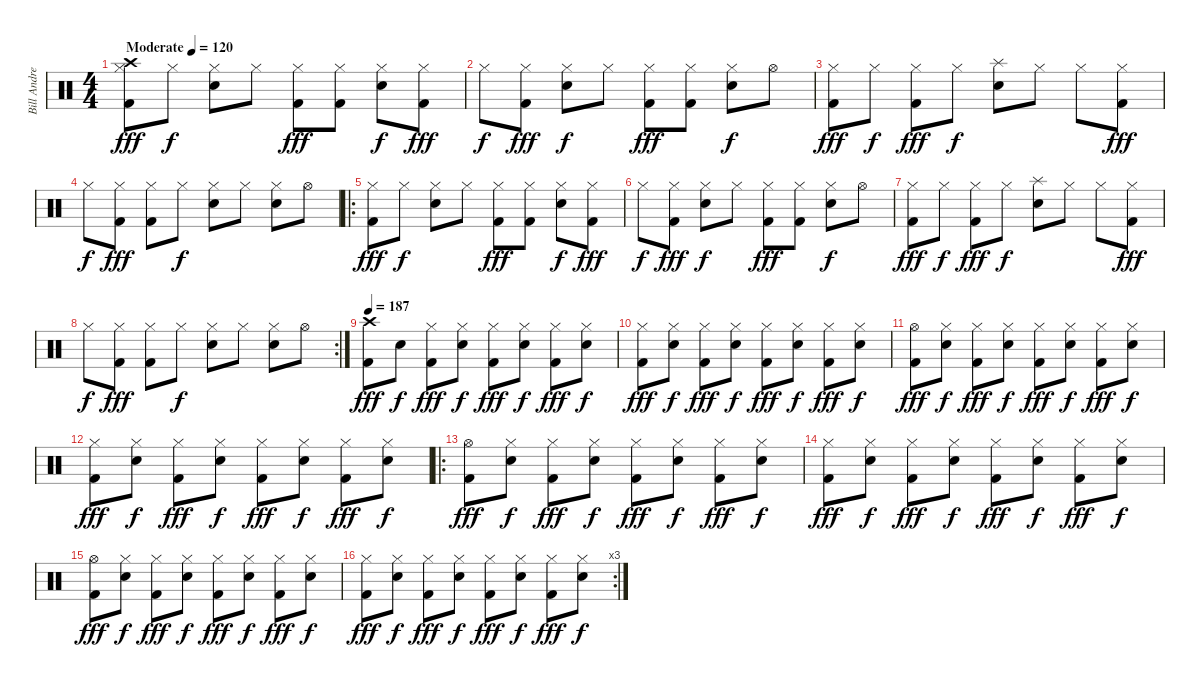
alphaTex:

\track ("Bill Andrews" "Bill Andre") {instrument percussion}
\staff {score}
\articulation defaults
\ts (4 4)
\tempo (120 "Moderate")
\clef neutral
\ks c
("Crash high (hit)" "Hi-Hat (closed)" "Kick (hit) 2").8{dy fff} "Hi-Hat (closed)".8{dy f} ("Hi-Hat (closed)" "Electric Snare (hit)").8 "Hi-Hat (closed)".8 ("Hi-Hat (closed)" "Kick (hit) 2").8{dy fff} ("Hi-Hat (closed)" "Kick (hit) 2").8 ("Hi-Hat (closed)" "Electric Snare (hit)").8{dy f} ("Hi-Hat (closed)" "Kick (hit) 2").8{dy fff} |
"Hi-Hat (closed)".8{dy f} ("Hi-Hat (closed)" "Kick (hit) 2").8{dy fff} ("Hi-Hat (closed)" "Electric Snare (hit)").8{dy f} "Hi-Hat (closed)".8 ("Hi-Hat (closed)" "Kick (hit) 2").8{dy fff} ("Hi-Hat (closed)" "Kick (hit) 2").8 ("Hi-Hat (closed)" "Electric Snare (hit)").8{dy f} "Hi-Hat (open)".8 |
("Hi-Hat (closed)" "Kick (hit) 2").8{dy fff} "Hi-Hat (closed)".8{dy f} ("Hi-Hat (closed)" "Kick (hit) 2").8{dy fff} "Hi-Hat (closed)".8{dy f} ("Splash (hit)" "Electric Snare (hit)").8 "Hi-Hat (closed)".8 "Hi-Hat (closed)".8 ("Hi-Hat (closed)" "Kick (hit) 2").8{dy fff} |
"Hi-Hat (closed)".8{dy f} ("Hi-Hat (closed)" "Kick (hit) 2").8{dy fff} ("Hi-Hat (closed)" "Kick (hit) 2").8 "Hi-Hat (closed)".8{dy f} ("Hi-Hat (closed)" "Electric Snare (hit)").8 "Hi-Hat (closed)".8 ("Hi-Hat (closed)" "Electric Snare (hit)").8 "Hi-Hat (open)".8 |
\ro
("Hi-Hat (closed)" "Kick (hit) 2").8{dy fff} "Hi-Hat (closed)".8{dy f} ("Hi-Hat (closed)" "Electric Snare (hit)").8 "Hi-Hat (closed)".8 ("Hi-Hat (closed)" "Kick (hit) 2").8{dy fff} ("Hi-Hat (closed)" "Kick (hit) 2").8 ("Hi-Hat (closed)" "Electric Snare (hit)").8{dy f} ("Hi-Hat (closed)" "Kick (hit) 2").8{dy fff} |
"Hi-Hat (closed)".8{dy f} ("Hi-Hat (closed)" "Kick (hit) 2").8{dy fff} ("Hi-Hat (closed)" "Electric Snare (hit)").8{dy f} "Hi-Hat (closed)".8 ("Hi-Hat (closed)" "Kick (hit) 2").8{dy fff} ("Hi-Hat (closed)" "Kick (hit) 2").8 ("Hi-Hat (closed)" "Electric Snare (hit)").8{dy f} "Hi-Hat (open)".8 |
("Hi-Hat (closed)" "Kick (hit) 2").8{dy fff} "Hi-Hat (closed)".8{dy f} ("Hi-Hat (closed)" "Kick (hit) 2").8{dy fff} "Hi-Hat (closed)".8{dy f} ("Splash (hit)" "Electric Snare (hit)").8 "Hi-Hat (closed)".8 "Hi-Hat (closed)".8 ("Hi-Hat (closed)" "Kick (hit) 2").8{dy fff} |
\rc 2 "Hi-Hat (closed)".8{dy f}
("Hi-Hat (closed)" "Kick (hit) 2").8{dy fff} ("Hi-Hat (closed)" "Kick (hit) 2").8 "Hi-Hat (closed)".8{dy f} ("Hi-Hat (closed)" "Electric Snare (hit)").8 "Hi-Hat (closed)".8 ("Hi-Hat (closed)" "Electric Snare (hit)").8 "Hi-Hat (open)".8 |
\tempo 187
("Crash high (hit)" "Kick (hit) 2").8{dy fff} "Electric Snare (hit)".8{dy f} ("Hi-Hat (closed)" "Kick (hit) 2").8{dy fff} ("Hi-Hat (closed)" "Electric Snare (hit)").8{dy f} ("Hi-Hat (closed)" "Kick (hit) 2").8{dy fff} ("Hi-Hat (closed)" "Electric Snare (hit)").8{dy f} ("Hi-Hat (closed)" "Kick (hit) 2").8{dy fff} ("Hi-Hat (closed)" "Electric Snare (hit)").8{dy f} |
("Hi-Hat (closed)" "Kick (hit) 2").8{dy fff} ("Hi-Hat (closed)" "Electric Snare (hit)").8{dy f} ("Hi-Hat (closed)" "Kick (hit) 2").8{dy fff} ("Hi-Hat (closed)" "Electric Snare (hit)").8{dy f} ("Hi-Hat (closed)" "Kick (hit) 2").8{dy fff} ("Hi-Hat (closed)" "Electric Snare (hit)").8{dy f} ("Hi-Hat (closed)" "Kick (hit) 2").8{dy fff} ("Hi-Hat (closed)" "Electric Snare (hit)").8{dy f} |
("Hi-Hat (open)" "Kick (hit) 2").8{dy fff} ("Hi-Hat (closed)" "Electric Snare (hit)").8{dy f} ("Hi-Hat (closed)" "Kick (hit) 2").8{dy fff} ("Hi-Hat (closed)" "Electric Snare (hit)").8{dy f} ("Hi-Hat (closed)" "Kick (hit) 2").8{dy fff} ("Hi-Hat (closed)" "Electric Snare (hit)").8{dy f} ("Hi-Hat (closed)" "Kick (hit) 2").8{dy fff} ("Hi-Hat (closed)" "Electric Snare (hit)").8{dy f} |
("Hi-Hat (closed)" "Kick (hit) 2").8{dy fff} ("Hi-Hat (closed)" "Electric Snare (hit)").8{dy f} ("Hi-Hat (closed)" "Kick (hit) 2").8{dy fff} ("Hi-Hat (closed)" "Electric Snare (hit)").8{dy f} ("Hi-Hat (closed)" "Kick (hit) 2").8{dy fff} ("Hi-Hat (closed)" "Electric Snare (hit)").8{dy f} ("Hi-Hat (closed)" "Kick (hit) 2").8{dy fff} ("Hi-Hat (closed)" "Electric Snare (hit)").8{dy f} |
\ro
("Hi-Hat (open)" "Kick (hit) 2").8{dy fff} ("Hi-Hat (closed)" "Electric Snare (hit)").8{dy f} ("Hi-Hat (closed)" "Kick (hit) 2").8{dy fff} ("Hi-Hat (closed)" "Electric Snare (hit)").8{dy f} ("Hi-Hat (closed)" "Kick (hit) 2").8{dy fff} ("Hi-Hat (closed)" "Electric Snare (hit)").8{dy f} ("Hi-Hat (closed)" "Kick (hit) 2").8{dy fff} ("Hi-Hat (closed)" "Electric Snare (hit)").8{dy f} |
("Hi-Hat (closed)" "Kick (hit) 2").8{dy fff} ("Hi-Hat (closed)" "Electric Snare (hit)").8{dy f} ("Hi-Hat (closed)" "Kick (hit) 2").8{dy fff} ("Hi-Hat (closed)" "Electric Snare (hit)").8{dy f} ("Hi-Hat (closed)" "Kick (hit) 2").8{dy fff} ("Hi-Hat (closed)" "Electric Snare (hit)").8{dy f} ("Hi-Hat (closed)" "Kick (hit) 2").8{dy fff} ("Hi-Hat (closed)" "Electric Snare (hit)").8{dy f} |
("Hi-Hat (open)" "Kick (hit) 2").8{dy fff} ("Hi-Hat (closed)" "Electric Snare (hit)").8{dy f} ("Hi-Hat (closed)" "Kick (hit) 2").8{dy fff} ("Hi-Hat (closed)" "Electric Snare (hit)").8{dy f} ("Hi-Hat (closed)" "Kick (hit) 2").8{dy fff} ("Hi-Hat (closed)" "Electric Snare (hit)").8{dy f} ("Hi-Hat (closed)" "Kick (hit) 2").8{dy fff} ("Hi-Hat (closed)" "Electric Snare (hit)").8{dy f} |
\rc 3
("Hi-Hat (closed)" "Kick (hit) 2").8{dy fff} ("Hi-Hat (closed)" "Electric Snare (hit)").8{dy f} ("Hi-Hat (closed)" "Kick (hit) 2").8{dy fff} ("Hi-Hat (closed)" "Electric Snare (hit)").8{dy f} ("Hi-Hat (closed)" "Kick (hit) 2").8{dy fff} ("Hi-Hat (closed)" "Electric Snare (hit)").8{dy f} ("Hi-Hat (closed)" "Kick (hit) 2").8{dy fff} ("Hi-Hat (closed)" "Electric Snare (hit)").8{dy f}
